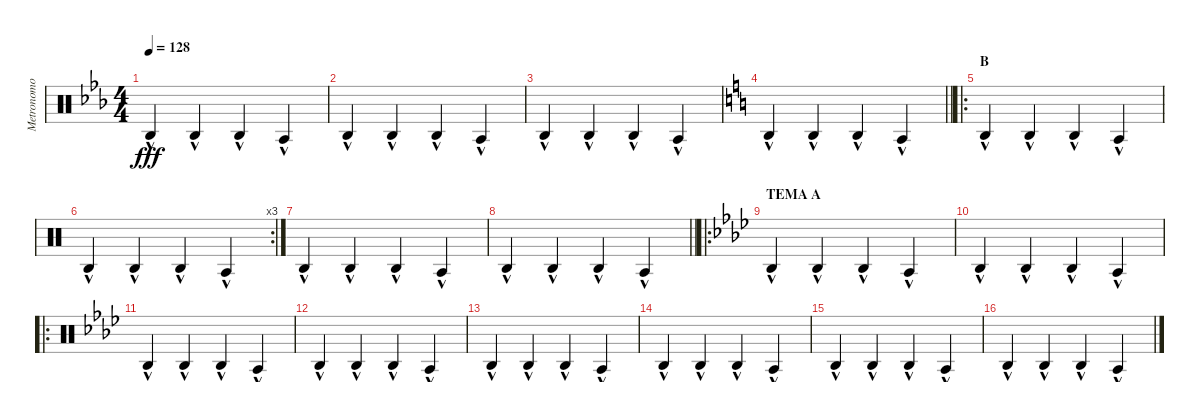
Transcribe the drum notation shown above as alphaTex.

\track ("Metronomo" "Metronomo") {mute instrument percussion}
\staff {score}
\articulation defaults
\ts (4 4)
\tempo 128
\clef neutral
\ks eb "Agogo high (hit)"{hac}.4{dy fff} "Agogo high (hit)"{hac}.4 "Agogo high (hit)"{hac}.4 "Agogo tow (hit)"{hac}.4
|
"Agogo high (hit)"{hac}.4 "Agogo high (hit)"{hac}.4 "Agogo high (hit)"{hac}.4 "Agogo tow (hit)"{hac}.4 |
"Agogo high (hit)"{hac}.4 "Agogo high (hit)"{hac}.4 "Agogo high (hit)"{hac}.4 "Agogo tow (hit)"{hac}.4 |
\barLineRight lightlight
\ks aminor "Agogo high (hit)"{hac}.4 "Agogo high (hit)"{hac}.4 "Agogo high (hit)"{hac}.4 "Agogo tow (hit)"{hac}.4
|
\ro
\section ("" "B")
"Agogo high (hit)"{hac}.4 "Agogo high (hit)"{hac}.4 "Agogo high (hit)"{hac}.4 "Agogo tow (hit)"{hac}.4 |
\rc 3 "Agogo high (hit)"{hac}.4 "Agogo high (hit)"{hac}.4 "Agogo high (hit)"{hac}.4 "Agogo tow (hit)"{hac}.4
|
"Agogo high (hit)"{hac}.4 "Agogo high (hit)"{hac}.4 "Agogo high (hit)"{hac}.4 "Agogo tow (hit)"{hac}.4 |
\barLineRight lightlight "Agogo high (hit)"{hac}.4 "Agogo high (hit)"{hac}.4 "Agogo high (hit)"{hac}.4 "Agogo tow (hit)"{hac}.4
|
\ro
\section ("" "TEMA A")
\ks fminor "Agogo high (hit)"{hac}.4 "Agogo high (hit)"{hac}.4 "Agogo high (hit)"{hac}.4 "Agogo tow (hit)"{hac}.4
|
"Agogo high (hit)"{hac}.4 "Agogo high (hit)"{hac}.4 "Agogo high (hit)"{hac}.4 "Agogo tow (hit)"{hac}.4 |
\ro "Agogo high (hit)"{hac}.4 "Agogo high (hit)"{hac}.4 "Agogo high (hit)"{hac}.4 "Agogo tow (hit)"{hac}.4
|
"Agogo high (hit)"{hac}.4 "Agogo high (hit)"{hac}.4 "Agogo high (hit)"{hac}.4 "Agogo tow (hit)"{hac}.4 |
"Agogo high (hit)"{hac}.4 "Agogo high (hit)"{hac}.4 "Agogo high (hit)"{hac}.4 "Agogo tow (hit)"{hac}.4 |
"Agogo high (hit)"{hac}.4 "Agogo high (hit)"{hac}.4 "Agogo high (hit)"{hac}.4 "Agogo tow (hit)"{hac}.4 |
"Agogo high (hit)"{hac}.4 "Agogo high (hit)"{hac}.4 "Agogo high (hit)"{hac}.4 "Agogo tow (hit)"{hac}.4 |
"Agogo high (hit)"{hac}.4 "Agogo high (hit)"{hac}.4 "Agogo high (hit)"{hac}.4 "Agogo tow (hit)"{hac}.4
